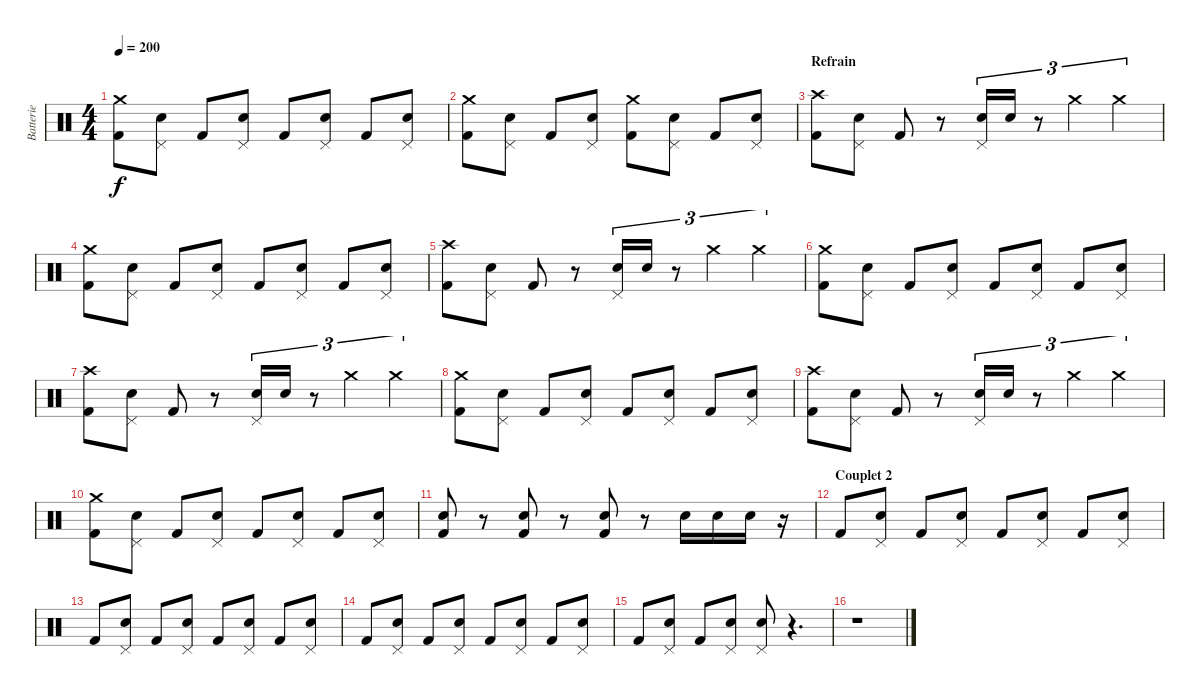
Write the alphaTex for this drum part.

\track ("Batterie" "Batterie") {instrument percussion}
\staff {score}
\articulation defaults
\ts (4 4)
\tempo 200
\clef neutral
\ks c
("Crash medium (hit)" "Kick (hit) 2").8{dy f} ("Pedal Hi-Hat (hit)" "Snare (hit) 2").8 "Kick (hit) 2".8 ("Pedal Hi-Hat (hit)" "Snare (hit) 2").8 "Kick (hit) 2".8 ("Pedal Hi-Hat (hit)" "Snare (hit) 2").8 "Kick (hit) 2".8 ("Pedal Hi-Hat (hit)" "Snare (hit) 2").8 |
("Crash medium (hit)" "Kick (hit) 2").8 ("Pedal Hi-Hat (hit)" "Snare (hit) 2").8 "Kick (hit) 2".8 ("Pedal Hi-Hat (hit)" "Snare (hit) 2").8 ("Crash medium (hit)" "Kick (hit) 2").8 ("Pedal Hi-Hat (hit)" "Snare (hit) 2").8 "Kick (hit) 2".8 ("Pedal Hi-Hat (hit)" "Snare (hit) 2").8 |
\section ("" "Refrain")
("Crash high (hit)" "Kick (hit) 2").8 ("Pedal Hi-Hat (hit)" "Snare (hit) 2").8 "Kick (hit) 2".8 r.8 ("Pedal Hi-Hat (hit)" "Snare (hit) 2").16{tu (3 2)} "Snare (hit) 2".16{tu (3 2)} r.8{tu (3 2)} "Crash medium (hit)".4{tu (3 2)} "Crash medium (hit)".4{tu (3 2)} |
("Crash medium (hit)" "Kick (hit) 2").8 ("Pedal Hi-Hat (hit)" "Snare (hit) 2").8 "Kick (hit) 2".8 ("Pedal Hi-Hat (hit)" "Snare (hit) 2").8 "Kick (hit) 2".8 ("Pedal Hi-Hat (hit)" "Snare (hit) 2").8 "Kick (hit) 2".8 ("Pedal Hi-Hat (hit)" "Snare (hit) 2").8 |
("Crash high (hit)" "Kick (hit) 2").8 ("Pedal Hi-Hat (hit)" "Snare (hit) 2").8 "Kick (hit) 2".8 r.8 ("Pedal Hi-Hat (hit)" "Snare (hit) 2").16{tu (3 2)} "Snare (hit) 2".16{tu (3 2)} r.8{tu (3 2)} "Crash medium (hit)".4{tu (3 2)} "Crash medium (hit)".4{tu (3 2)} |
("Crash medium (hit)" "Kick (hit) 2").8 ("Pedal Hi-Hat (hit)" "Snare (hit) 2").8 "Kick (hit) 2".8 ("Pedal Hi-Hat (hit)" "Snare (hit) 2").8 "Kick (hit) 2".8 ("Pedal Hi-Hat (hit)" "Snare (hit) 2").8 "Kick (hit) 2".8 ("Pedal Hi-Hat (hit)" "Snare (hit) 2").8 |
("Crash high (hit)" "Kick (hit) 2").8 ("Pedal Hi-Hat (hit)" "Snare (hit) 2").8 "Kick (hit) 2".8 r.8 ("Pedal Hi-Hat (hit)" "Snare (hit) 2").16{tu (3 2)} "Snare (hit) 2".16{tu (3 2)} r.8{tu (3 2)} "Crash medium (hit)".4{tu (3 2)} "Crash medium (hit)".4{tu (3 2)} |
("Crash medium (hit)" "Kick (hit) 2").8 ("Pedal Hi-Hat (hit)" "Snare (hit) 2").8 "Kick (hit) 2".8 ("Pedal Hi-Hat (hit)" "Snare (hit) 2").8 "Kick (hit) 2".8 ("Pedal Hi-Hat (hit)" "Snare (hit) 2").8 "Kick (hit) 2".8 ("Pedal Hi-Hat (hit)" "Snare (hit) 2").8 |
("Crash high (hit)" "Kick (hit) 2").8 ("Pedal Hi-Hat (hit)" "Snare (hit) 2").8 "Kick (hit) 2".8 r.8 ("Pedal Hi-Hat (hit)" "Snare (hit) 2").16{tu (3 2)} "Snare (hit) 2".16{tu (3 2)} r.8{tu (3 2)} "Crash medium (hit)".4{tu (3 2)} "Crash medium (hit)".4{tu (3 2)} |
("Crash medium (hit)" "Kick (hit) 2").8 ("Pedal Hi-Hat (hit)" "Snare (hit) 2").8 "Kick (hit) 2".8 ("Pedal Hi-Hat (hit)" "Snare (hit) 2").8 "Kick (hit) 2".8 ("Pedal Hi-Hat (hit)" "Snare (hit) 2").8 "Kick (hit) 2".8 ("Pedal Hi-Hat (hit)" "Snare (hit) 2").8 |
("Snare (hit) 2" "Kick (hit) 2").8 r.8 ("Snare (hit) 2" "Kick (hit) 2").8 r.8 ("Snare (hit) 2" "Kick (hit) 2").8 r.8 "Snare (hit) 2".16 "Snare (hit) 2".16 "Snare (hit) 2".16 r.16 |
\section ("" "Couplet 2")
"Kick (hit) 2".8 ("Pedal Hi-Hat (hit)" "Snare (hit) 2").8 "Kick (hit) 2".8 ("Pedal Hi-Hat (hit)" "Snare (hit) 2").8 "Kick (hit) 2".8 ("Pedal Hi-Hat (hit)" "Snare (hit) 2").8 "Kick (hit) 2".8 ("Pedal Hi-Hat (hit)" "Snare (hit) 2").8 |
"Kick (hit) 2".8 ("Pedal Hi-Hat (hit)" "Snare (hit) 2").8 "Kick (hit) 2".8 ("Pedal Hi-Hat (hit)" "Snare (hit) 2").8 "Kick (hit) 2".8 ("Pedal Hi-Hat (hit)" "Snare (hit) 2").8 "Kick (hit) 2".8 ("Pedal Hi-Hat (hit)" "Snare (hit) 2").8 |
"Kick (hit) 2".8 ("Pedal Hi-Hat (hit)" "Snare (hit) 2").8 "Kick (hit) 2".8 ("Pedal Hi-Hat (hit)" "Snare (hit) 2").8 "Kick (hit) 2".8 ("Pedal Hi-Hat (hit)" "Snare (hit) 2").8 "Kick (hit) 2".8 ("Pedal Hi-Hat (hit)" "Snare (hit) 2").8 |
"Kick (hit) 2".8 ("Pedal Hi-Hat (hit)" "Snare (hit) 2").8 "Kick (hit) 2".8 ("Pedal Hi-Hat (hit)" "Snare (hit) 2").8 ("Pedal Hi-Hat (hit)" "Snare (hit) 2").8 r.4{d} |
r.1
